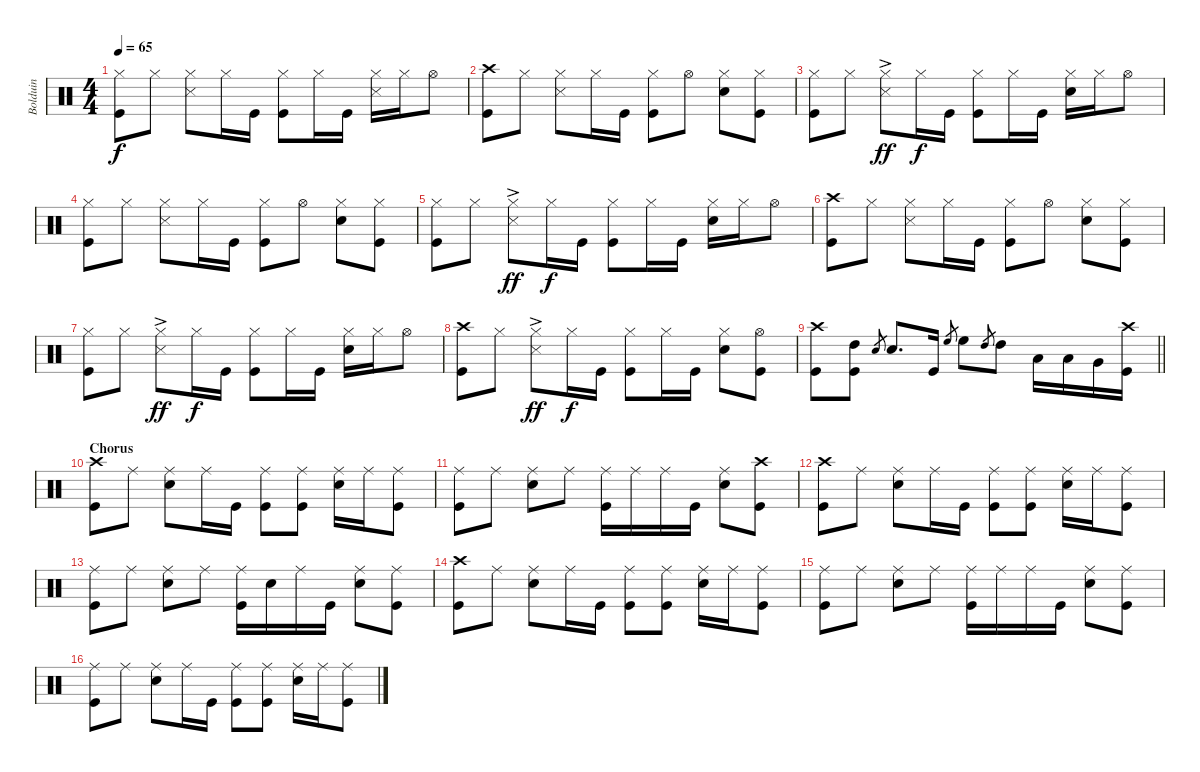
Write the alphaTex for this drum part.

\track ("Bolduin" "Bolduin") {instrument percussion}
\staff {score}
\articulation defaults
\ts (4 4)
\tempo 65
\clef neutral
\ks c
("Kick (hit)" "Hi-Hat (closed)").8{dy f} "Hi-Hat (closed)".8 ("Hi-Hat (closed)" "Snare (side stick) 3").8 "Hi-Hat (closed)".16 "Kick (hit)".16 ("Hi-Hat (closed)" "Kick (hit)").8 "Hi-Hat (closed)".16 "Kick (hit)".16 ("Hi-Hat (closed)" "Snare (side stick) 3").16 "Hi-Hat (closed)".16 "Hi-Hat (open)".8 |
("Kick (hit)" "Crash high (hit)").8 "Hi-Hat (closed)".8 ("Hi-Hat (closed)" "Snare (side stick) 3").8 "Hi-Hat (closed)".16 "Kick (hit)".16 ("Hi-Hat (closed)" "Kick (hit)").8 "Hi-Hat (open)".8 ("Hi-Hat (closed)" "Snare (hit) 2").8 ("Hi-Hat (closed)" "Kick (hit)").8 |
("Kick (hit)" "Hi-Hat (closed)").8 "Hi-Hat (closed)".8 ("Hi-Hat (closed)"{ac} "Snare (side stick) 3").8{dy ff} "Hi-Hat (closed)".16{dy f} "Kick (hit)".16 ("Hi-Hat (closed)" "Kick (hit)").8 "Hi-Hat (closed)".16 "Kick (hit)".16 ("Hi-Hat (closed)" "Snare (hit) 2").16 "Hi-Hat (closed)".16 "Hi-Hat (open)".8 |
("Kick (hit)" "Hi-Hat (closed)").8 "Hi-Hat (closed)".8 ("Hi-Hat (closed)" "Snare (side stick) 3").8 "Hi-Hat (closed)".16 "Kick (hit)".16 ("Hi-Hat (closed)" "Kick (hit)").8 "Hi-Hat (open)".8 ("Hi-Hat (closed)" "Snare (hit) 2").8 ("Hi-Hat (closed)" "Kick (hit)").8 |
("Kick (hit)" "Hi-Hat (closed)").8 "Hi-Hat (closed)".8 ("Hi-Hat (closed)"{ac} "Snare (side stick) 3").8{dy ff} "Hi-Hat (closed)".16{dy f} "Kick (hit)".16 ("Hi-Hat (closed)" "Kick (hit)").8 "Hi-Hat (closed)".16 "Kick (hit)".16 ("Hi-Hat (closed)" "Snare (hit) 2").16 "Hi-Hat (closed)".16 "Hi-Hat (open)".8 |
("Kick (hit)" "Crash high (hit)").8 "Hi-Hat (closed)".8 ("Hi-Hat (closed)" "Snare (side stick) 3").8 "Hi-Hat (closed)".16 "Kick (hit)".16 ("Hi-Hat (closed)" "Kick (hit)").8 "Hi-Hat (open)".8 ("Hi-Hat (closed)" "Snare (hit) 2").8 ("Hi-Hat (closed)" "Kick (hit)").8 |
("Kick (hit)" "Hi-Hat (closed)").8 "Hi-Hat (closed)".8 ("Hi-Hat (closed)"{ac} "Snare (side stick) 3").8{dy ff} "Hi-Hat (closed)".16{dy f} "Kick (hit)".16 ("Hi-Hat (closed)" "Kick (hit)").8 "Hi-Hat (closed)".16 "Kick (hit)".16 ("Hi-Hat (closed)" "Snare (hit) 2").16 "Hi-Hat (closed)".16 "Hi-Hat (open)".8 |
("Kick (hit)" "Crash high (hit)").8 "Hi-Hat (closed)".8 ("Hi-Hat (closed)"{ac} "Snare (side stick) 3").8{dy ff} "Hi-Hat (closed)".16{dy f} "Kick (hit)".16 ("Hi-Hat (closed)" "Kick (hit)").8 "Hi-Hat (closed)".16 "Kick (hit)".16 ("Hi-Hat (closed)" "Snare (hit) 2").8 ("Hi-Hat (open)" "Kick (hit)").8 |
\barLineRight lightlight
("Kick (hit)" "Crash high (hit)").8 ("High Tom (hit)" "Kick (hit)").8 "Snare (hit) 2".8{gr} "Snare (hit) 2".8{d} "Kick (hit)".16 "High Floor Tom (hit)".8{gr} "High Floor Tom (hit)".8 "High Tom (hit)".8{gr} "High Tom (hit)".8 "Low Tom (hit)".16 "Low Tom (hit)".16 "Very Low Tom (hit)".16 ("Crash high (hit)" "Kick (hit)").16 |
\section ("" "Chorus")
("Kick (hit)" "Crash high (hit)").8 "Ride (middle)".8 ("Ride (middle)" "Snare (hit) 2").8 "Ride (middle)".16 "Kick (hit)".16 ("Kick (hit)" "Ride (middle)").8 ("Ride (middle)" "Kick (hit)").8 ("Ride (middle)" "Snare (hit) 2").16 "Ride (middle)".16 ("Ride (middle)" "Kick (hit)").8 |
("Kick (hit)" "Ride (middle)").8 "Ride (middle)".8 ("Ride (middle)" "Snare (hit) 2").8 "Ride (middle)".8 ("Kick (hit)" "Ride (middle)").16 "Ride (middle)".16 "Ride (middle)".16 "Kick (hit)".16 ("Ride (middle)" "Snare (hit) 2").8 ("Crash high (hit)" "Kick (hit)").8 |
("Kick (hit)" "Crash high (hit)").8 "Ride (middle)".8 ("Ride (middle)" "Snare (hit) 2").8 "Ride (middle)".16 "Kick (hit)".16 ("Kick (hit)" "Ride (middle)").8 ("Ride (middle)" "Kick (hit)").8 ("Ride (middle)" "Snare (hit) 2").16 "Ride (middle)".16 ("Ride (middle)" "Kick (hit)").8 |
("Kick (hit)" "Ride (middle)").8 "Ride (middle)".8 ("Ride (middle)" "Snare (hit) 2").8 "Ride (middle)".8 ("Kick (hit)" "Ride (middle)").16 "Snare (hit) 2".16 "Ride (middle)".16 "Kick (hit)".16 ("Ride (middle)" "Snare (hit) 2").8 ("Ride (middle)" "Kick (hit)").8 |
("Kick (hit)" "Crash high (hit)").8 "Ride (middle)".8 ("Ride (middle)" "Snare (hit) 2").8 "Ride (middle)".16 "Kick (hit)".16 ("Kick (hit)" "Ride (middle)").8 ("Ride (middle)" "Kick (hit)").8 ("Ride (middle)" "Snare (hit) 2").16 "Ride (middle)".16 ("Ride (middle)" "Kick (hit)").8 |
("Kick (hit)" "Ride (middle)").8 "Ride (middle)".8 ("Ride (middle)" "Snare (hit) 2").8 "Ride (middle)".8 ("Kick (hit)" "Ride (middle)").16 "Ride (middle)".16 "Ride (middle)".16 "Kick (hit)".16 ("Ride (middle)" "Snare (hit) 2").8 ("Ride (middle)" "Kick (hit)").8 |
("Kick (hit)" "Ride (middle)").8 "Ride (middle)".8 ("Ride (middle)" "Snare (hit) 2").8 "Ride (middle)".16 "Kick (hit)".16 ("Kick (hit)" "Ride (middle)").8 ("Ride (middle)" "Kick (hit)").8 ("Ride (middle)" "Snare (hit) 2").16 "Ride (middle)".16 ("Ride (middle)" "Kick (hit)").8
